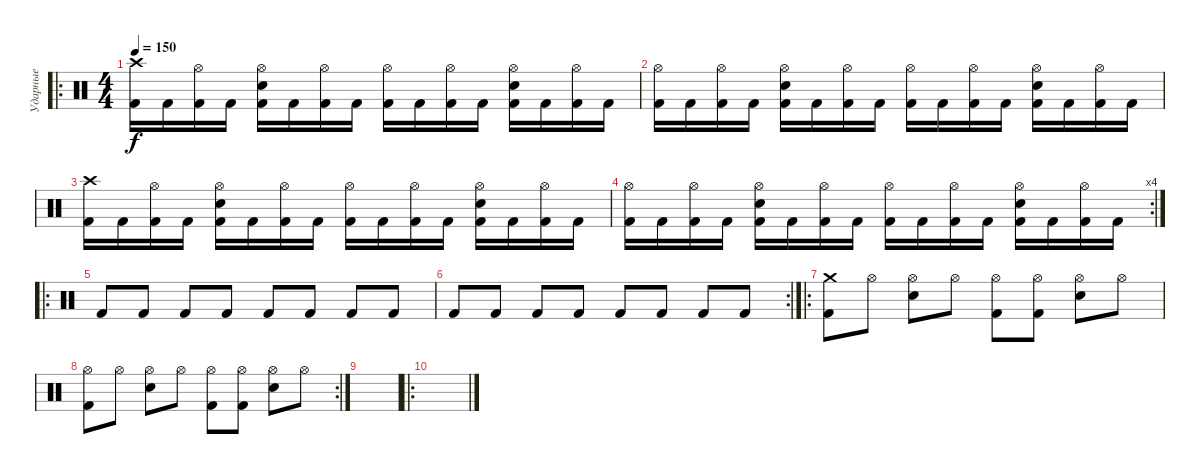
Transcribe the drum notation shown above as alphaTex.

\track ("Ударные" "Ударные") {instrument percussion}
\staff {score}
\articulation defaults
\ro
\ts (4 4)
\tempo 150
\clef neutral
\ks c
("Kick (hit) 2" "Crash high (hit)").16{dy f} "Kick (hit) 2".16 ("Kick (hit) 2" "Hi-Hat (open)").16 "Kick (hit) 2".16 ("Kick (hit) 2" "Electric Snare (hit)" "Hi-Hat (open)").16 "Kick (hit) 2".16 ("Kick (hit) 2" "Hi-Hat (open)").16 "Kick (hit) 2".16 ("Kick (hit) 2" "Hi-Hat (open)").16 "Kick (hit) 2".16 ("Kick (hit) 2" "Hi-Hat (open)").16 "Kick (hit) 2".16 ("Kick (hit) 2" "Electric Snare (hit)" "Hi-Hat (open)").16 "Kick (hit) 2".16 ("Kick (hit) 2" "Hi-Hat (open)").16 "Kick (hit) 2".16 |
("Kick (hit) 2" "Hi-Hat (open)").16 "Kick (hit) 2".16 ("Kick (hit) 2" "Hi-Hat (open)").16 "Kick (hit) 2".16 ("Kick (hit) 2" "Electric Snare (hit)" "Hi-Hat (open)").16 "Kick (hit) 2".16 ("Kick (hit) 2" "Hi-Hat (open)").16 "Kick (hit) 2".16 ("Kick (hit) 2" "Hi-Hat (open)").16 "Kick (hit) 2".16 ("Kick (hit) 2" "Hi-Hat (open)").16 "Kick (hit) 2".16 ("Kick (hit) 2" "Electric Snare (hit)" "Hi-Hat (open)").16 "Kick (hit) 2".16 ("Kick (hit) 2" "Hi-Hat (open)").16 "Kick (hit) 2".16 |
("Kick (hit) 2" "Crash high (hit)").16 "Kick (hit) 2".16 ("Kick (hit) 2" "Hi-Hat (open)").16 "Kick (hit) 2".16 ("Kick (hit) 2" "Electric Snare (hit)" "Hi-Hat (open)").16 "Kick (hit) 2".16 ("Kick (hit) 2" "Hi-Hat (open)").16 "Kick (hit) 2".16 ("Kick (hit) 2" "Hi-Hat (open)").16 "Kick (hit) 2".16 ("Kick (hit) 2" "Hi-Hat (open)").16 "Kick (hit) 2".16 ("Kick (hit) 2" "Electric Snare (hit)" "Hi-Hat (open)").16 "Kick (hit) 2".16 ("Kick (hit) 2" "Hi-Hat (open)").16 "Kick (hit) 2".16 |
\rc 4
("Kick (hit) 2" "Hi-Hat (open)").16 "Kick (hit) 2".16 ("Kick (hit) 2" "Hi-Hat (open)").16 "Kick (hit) 2".16 ("Kick (hit) 2" "Electric Snare (hit)" "Hi-Hat (open)").16 "Kick (hit) 2".16 ("Kick (hit) 2" "Hi-Hat (open)").16 "Kick (hit) 2".16 ("Kick (hit) 2" "Hi-Hat (open)").16 "Kick (hit) 2".16 ("Kick (hit) 2" "Hi-Hat (open)").16 "Kick (hit) 2".16 ("Kick (hit) 2" "Electric Snare (hit)" "Hi-Hat (open)").16 "Kick (hit) 2".16 ("Kick (hit) 2" "Hi-Hat (open)").16 "Kick (hit) 2".16 |
\ro "Kick (hit) 2".8 "Kick (hit) 2".8 "Kick (hit) 2".8 "Kick (hit) 2".8 "Kick (hit) 2".8 "Kick (hit) 2".8 "Kick (hit) 2".8 "Kick (hit) 2".8
|
\rc 2 "Kick (hit) 2".8 "Kick (hit) 2".8 "Kick (hit) 2".8 "Kick (hit) 2".8 "Kick (hit) 2".8 "Kick (hit) 2".8 "Kick (hit) 2".8 "Kick (hit) 2".8
|
\ro
("Kick (hit) 2" "Crash medium (hit)").8 "Hi-Hat (open)".8 ("Electric Snare (hit)" "Hi-Hat (open)").8 "Hi-Hat (open)".8 ("Kick (hit) 2" "Hi-Hat (open)").8 ("Kick (hit) 2" "Hi-Hat (open)").8 ("Electric Snare (hit)" "Hi-Hat (open)").8 "Hi-Hat (open)".8 |
\rc 2
("Kick (hit) 2" "Hi-Hat (open)").8 "Hi-Hat (open)".8 ("Electric Snare (hit)" "Hi-Hat (open)").8 "Hi-Hat (open)".8 ("Kick (hit) 2" "Hi-Hat (open)").8 ("Kick (hit) 2" "Hi-Hat (open)").8 ("Electric Snare (hit)" "Hi-Hat (open)").8 "Hi-Hat (open)".8 |
|
\ro
